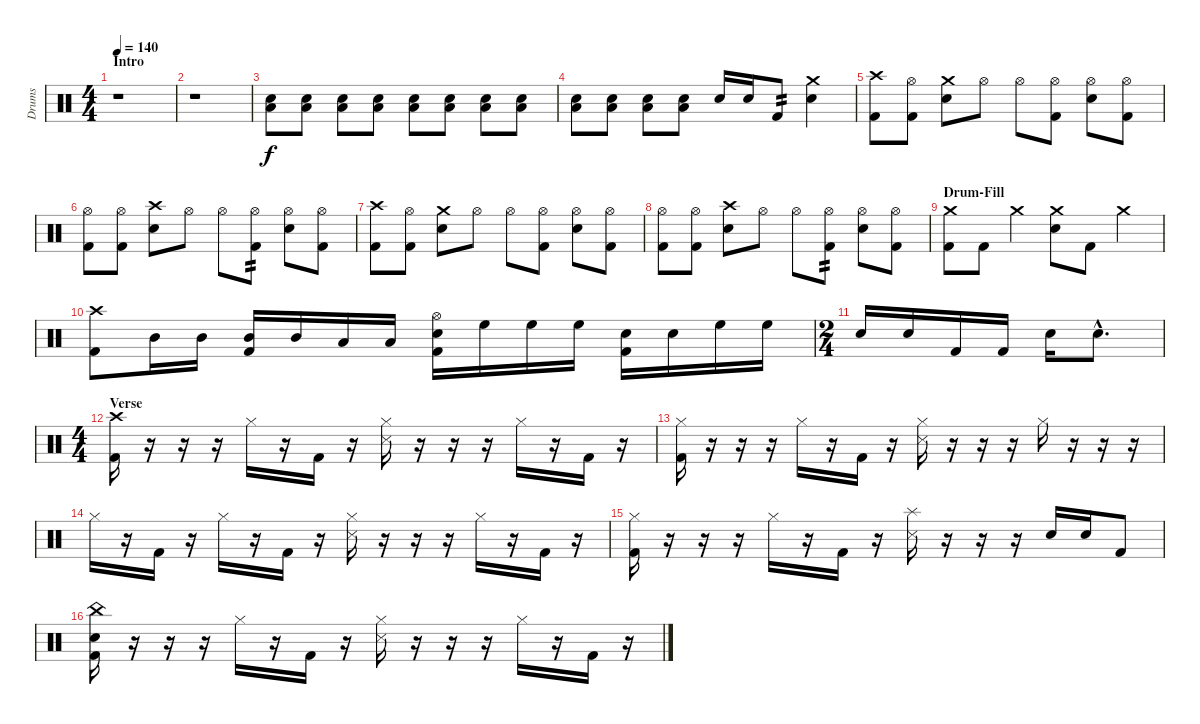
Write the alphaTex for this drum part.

\track ("Drums" "Drums") {instrument percussion}
\staff {score}
\articulation defaults
\ts (4 4)
\section ("" "Intro")
\tempo 140
\clef neutral
\ks c
r.1{dy f} |
r.1 |
("Snare (hit) 2" "Low Tom (hit)").8{volume 0} ("Snare (hit) 2" "Low Tom (hit)").8{volume 13} ("Snare (hit) 2" "Low Tom (hit)").8 ("Snare (hit) 2" "Low Tom (hit)").8 ("Snare (hit) 2" "Low Tom (hit)").8 ("Snare (hit) 2" "Low Tom (hit)").8 ("Snare (hit) 2" "Low Tom (hit)").8 ("Snare (hit) 2" "Low Tom (hit)").8 |
("Snare (hit) 2" "Low Tom (hit)").8 ("Snare (hit) 2" "Low Tom (hit)").8 ("Snare (hit) 2" "Low Tom (hit)").8 ("Snare (hit) 2" "Low Tom (hit)").8 "Snare (hit) 2".16 "Snare (hit) 2".16 "Kick (hit) 2".8{tp 2} ("Crash medium (hit)" "Snare (hit) 2").4 |
("Crash high (hit)" "Kick (hit) 2").8 ("Hi-Hat (open)" "Kick (hit) 2").8 ("Crash medium (hit)" "Snare (hit) 2").8 "Hi-Hat (open)".8 "Hi-Hat (open)".8 ("Hi-Hat (open)" "Kick (hit) 2").8 ("Hi-Hat (open)" "Snare (hit) 2").8 ("Hi-Hat (open)" "Kick (hit) 2").8 |
("Hi-Hat (open)" "Kick (hit) 2").8 ("Hi-Hat (open)" "Kick (hit) 2").8 ("Crash high (hit)" "Snare (hit) 2").8 "Hi-Hat (open)".8 "Hi-Hat (open)".8 ("Hi-Hat (open)" "Kick (hit) 2").8{tp 2} ("Hi-Hat (open)" "Snare (hit) 2").8 ("Hi-Hat (open)" "Kick (hit) 2").8 |
("Crash high (hit)" "Kick (hit) 2").8 ("Hi-Hat (open)" "Kick (hit) 2").8 ("Crash medium (hit)" "Snare (hit) 2").8 "Hi-Hat (open)".8 "Hi-Hat (open)".8 ("Hi-Hat (open)" "Kick (hit) 2").8 ("Hi-Hat (open)" "Snare (hit) 2").8 ("Hi-Hat (open)" "Kick (hit) 2").8 |
("Hi-Hat (open)" "Kick (hit) 2").8 ("Hi-Hat (open)" "Kick (hit) 2").8 ("Crash high (hit)" "Snare (hit) 2").8 "Hi-Hat (open)".8 "Hi-Hat (open)".8 ("Hi-Hat (open)" "Kick (hit) 2").8{tp 2} ("Hi-Hat (open)" "Snare (hit) 2").8 ("Hi-Hat (open)" "Kick (hit) 2").8 |
\section ("" "Drum-Fill")
("Crash medium (hit)" "Kick (hit) 2").8 "Kick (hit) 2".8 "Crash medium (hit)".4 ("Crash medium (hit)" "Snare (hit) 2").8 "Kick (hit) 2".8 "Crash medium (hit)".4 |
("Crash high (hit)" "Kick (hit) 2").8 "Mid Tom (hit)".16 "Mid Tom (hit)".16 ("Mid Tom (hit)" "Kick (hit) 2").16 "Mid Tom (hit)".16 "Low Tom (hit)".16 "Low Tom (hit)".16 ("Hi-Hat (open)" "Snare (hit) 2" "Kick (hit) 2").16 "High Floor Tom (hit)".16 "High Floor Tom (hit)".16 "High Floor Tom (hit)".16 ("Snare (hit) 2" "Kick (hit) 2").16 "Snare (hit) 2".16 "High Floor Tom (hit)".16 "High Floor Tom (hit)".16 |
\ts (2 4)
"Snare (hit) 2".16 "Snare (hit) 2".16 "Kick (hit) 2".16 "Kick (hit) 2".16 "Snare (hit) 2".16 "Snare (hit) 2"{hac}.8{d} |
\ts (4 4)
\section ("" "Verse")
("Crash high (hit)" "Kick (hit) 2").16 r.16 r.16 r.16 "Hi-Hat (closed)".16 r.16 "Kick (hit) 2".16 r.16 ("Hi-Hat (closed)" "Snare (side stick) 3").16 r.16 r.16 r.16 "Hi-Hat (closed)".16 r.16 "Kick (hit) 2".16 r.16 |
("Hi-Hat (closed)" "Kick (hit) 2").16 r.16 r.16 r.16 "Hi-Hat (closed)".16 r.16 "Kick (hit) 2".16 r.16 ("Hi-Hat (closed)" "Snare (side stick) 3").16 r.16 r.16 r.16 "Hi-Hat (closed)".16 r.16 r.16 r.16 |
"Hi-Hat (closed)".16 r.16 "Kick (hit) 2".16 r.16 "Hi-Hat (closed)".16 r.16 "Kick (hit) 2".16 r.16 ("Hi-Hat (closed)" "Snare (side stick) 3").16 r.16 r.16 r.16 "Hi-Hat (closed)".16 r.16 "Kick (hit) 2".16 r.16 |
("Hi-Hat (closed)" "Kick (hit) 2").16 r.16 r.16 r.16 "Hi-Hat (closed)".16 r.16 "Kick (hit) 2".16 r.16 ("Splash (hit)" "Snare (side stick) 3").16 r.16 r.16 r.16 "Snare (hit) 2".16 "Snare (hit) 2".16 "Kick (hit) 2".8 |
("China (hit)" "Snare (hit) 2" "Kick (hit) 2").16 r.16 r.16 r.16 "Hi-Hat (closed)".16 r.16 "Kick (hit) 2".16 r.16 ("Hi-Hat (closed)" "Snare (side stick) 3").16 r.16 r.16 r.16 "Hi-Hat (closed)".16 r.16 "Kick (hit) 2".16 r.16
